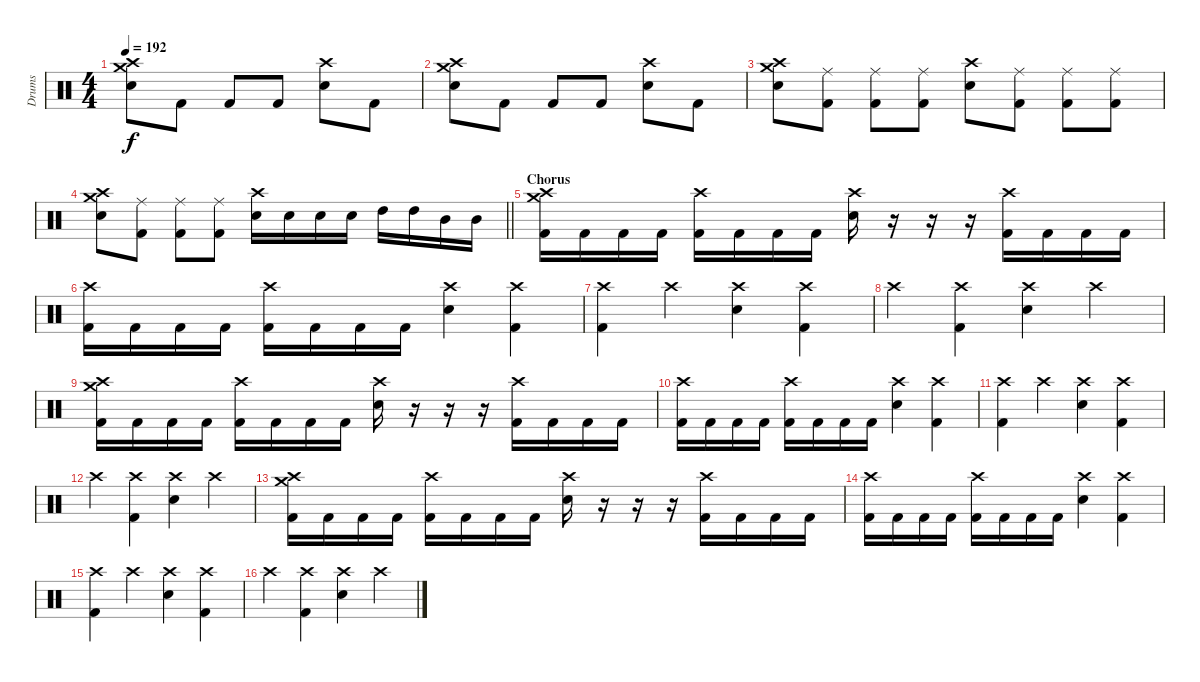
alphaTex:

\track ("Drums" "Drums") {instrument percussion}
\staff {score}
\articulation defaults
\ts (4 4)
\tempo 192
\clef neutral
\ks c
("Crash high (hit)" "Crash medium (hit)" "Snare (hit) 2").8{dy f} "Kick (hit) 2".8 "Kick (hit) 2".8 "Kick (hit) 2".8 ("Crash high (hit)" "Snare (hit) 2").8 "Kick (hit) 2".8 |
("Crash high (hit)" "Crash medium (hit)" "Snare (hit) 2").8 "Kick (hit) 2".8 "Kick (hit) 2".8 "Kick (hit) 2".8 ("Crash high (hit)" "Snare (hit) 2").8 "Kick (hit) 2".8 |
("Crash high (hit)" "Crash medium (hit)" "Snare (hit) 2").8 ("Ride (middle)" "Kick (hit) 2").8 ("Ride (middle)" "Kick (hit) 2").8 ("Ride (middle)" "Kick (hit) 2").8 ("Crash high (hit)" "Snare (hit) 2").8 ("Ride (middle)" "Kick (hit) 2").8 ("Ride (middle)" "Kick (hit) 2").8 ("Ride (middle)" "Kick (hit) 2").8 |
\barLineRight lightlight
("Crash high (hit)" "Crash medium (hit)" "Snare (hit) 2").8 ("Ride (middle)" "Kick (hit) 2").8 ("Ride (middle)" "Kick (hit) 2").8 ("Ride (middle)" "Kick (hit) 2").8 ("Crash high (hit)" "Snare (hit) 2").16 "Snare (hit) 2".16 "Snare (hit) 2".16 "Snare (hit) 2".16 "High Tom (hit)".16 "High Tom (hit)".16 "Mid Tom (hit)".16 "Mid Tom (hit)".16 |
\section ("" "Chorus")
("Crash high (hit)" "Crash medium (hit)" "Kick (hit) 2").16 "Kick (hit) 2".16 "Kick (hit) 2".16 "Kick (hit) 2".16 ("Crash high (hit)" "Kick (hit) 2").16 "Kick (hit) 2".16 "Kick (hit) 2".16 "Kick (hit) 2".16 ("Crash high (hit)" "Snare (hit) 2").16 r.16 r.16 r.16 ("Crash high (hit)" "Kick (hit) 2").16 "Kick (hit) 2".16 "Kick (hit) 2".16 "Kick (hit) 2".16 |
("Crash high (hit)" "Kick (hit) 2").16 "Kick (hit) 2".16 "Kick (hit) 2".16 "Kick (hit) 2".16 ("Crash high (hit)" "Kick (hit) 2").16 "Kick (hit) 2".16 "Kick (hit) 2".16 "Kick (hit) 2".16 ("Crash high (hit)" "Snare (hit) 2").4 ("Crash high (hit)" "Kick (hit) 2").4 |
("Crash high (hit)" "Kick (hit) 2").4 "Crash high (hit)".4 ("Crash high (hit)" "Snare (hit) 2").4 ("Crash high (hit)" "Kick (hit) 2").4 |
"Crash high (hit)".4 ("Crash high (hit)" "Kick (hit) 2").4 ("Crash high (hit)" "Snare (hit) 2").4 "Crash high (hit)".4 |
("Crash high (hit)" "Crash medium (hit)" "Kick (hit) 2").16 "Kick (hit) 2".16 "Kick (hit) 2".16 "Kick (hit) 2".16 ("Crash high (hit)" "Kick (hit) 2").16 "Kick (hit) 2".16 "Kick (hit) 2".16 "Kick (hit) 2".16 ("Crash high (hit)" "Snare (hit) 2").16 r.16 r.16 r.16 ("Crash high (hit)" "Kick (hit) 2").16 "Kick (hit) 2".16 "Kick (hit) 2".16 "Kick (hit) 2".16 |
("Crash high (hit)" "Kick (hit) 2").16 "Kick (hit) 2".16 "Kick (hit) 2".16 "Kick (hit) 2".16 ("Crash high (hit)" "Kick (hit) 2").16 "Kick (hit) 2".16 "Kick (hit) 2".16 "Kick (hit) 2".16 ("Crash high (hit)" "Snare (hit) 2").4 ("Crash high (hit)" "Kick (hit) 2").4 |
("Crash high (hit)" "Kick (hit) 2").4 "Crash high (hit)".4 ("Crash high (hit)" "Snare (hit) 2").4 ("Crash high (hit)" "Kick (hit) 2").4 |
"Crash high (hit)".4 ("Crash high (hit)" "Kick (hit) 2").4 ("Crash high (hit)" "Snare (hit) 2").4 "Crash high (hit)".4 |
("Crash high (hit)" "Crash medium (hit)" "Kick (hit) 2").16 "Kick (hit) 2".16 "Kick (hit) 2".16 "Kick (hit) 2".16 ("Crash high (hit)" "Kick (hit) 2").16 "Kick (hit) 2".16 "Kick (hit) 2".16 "Kick (hit) 2".16 ("Crash high (hit)" "Snare (hit) 2").16 r.16 r.16 r.16 ("Crash high (hit)" "Kick (hit) 2").16 "Kick (hit) 2".16 "Kick (hit) 2".16 "Kick (hit) 2".16 |
("Crash high (hit)" "Kick (hit) 2").16 "Kick (hit) 2".16 "Kick (hit) 2".16 "Kick (hit) 2".16 ("Crash high (hit)" "Kick (hit) 2").16 "Kick (hit) 2".16 "Kick (hit) 2".16 "Kick (hit) 2".16 ("Crash high (hit)" "Snare (hit) 2").4 ("Crash high (hit)" "Kick (hit) 2").4 |
("Crash high (hit)" "Kick (hit) 2").4 "Crash high (hit)".4 ("Crash high (hit)" "Snare (hit) 2").4 ("Crash high (hit)" "Kick (hit) 2").4 |
"Crash high (hit)".4 ("Crash high (hit)" "Kick (hit) 2").4 ("Crash high (hit)" "Snare (hit) 2").4 "Crash high (hit)".4
